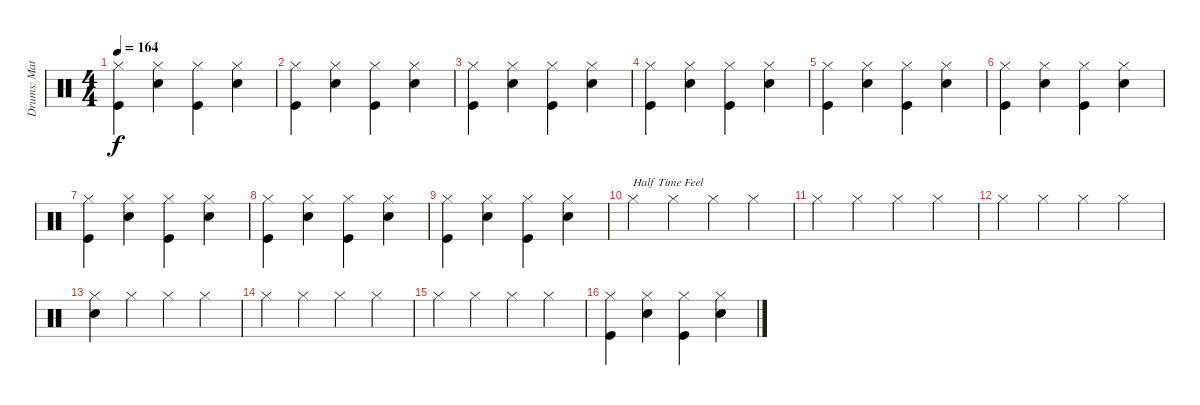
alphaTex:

\track ("Drums: Matt" "Drums: Mat") {instrument percussion}
\staff {score}
\articulation defaults
\ts (4 4)
\tempo 164
\clef neutral
\ks c
("Hi-Hat (closed)" "Kick (hit)").4{dy f} ("Hi-Hat (closed)" "Snare (hit) 2").4 ("Hi-Hat (closed)" "Kick (hit)").4 ("Hi-Hat (closed)" "Snare (hit) 2").4 |
("Hi-Hat (closed)" "Kick (hit)").4 ("Hi-Hat (closed)" "Snare (hit) 2").4 ("Hi-Hat (closed)" "Kick (hit)").4 ("Hi-Hat (closed)" "Snare (hit) 2").4 |
("Hi-Hat (closed)" "Kick (hit)").4 ("Hi-Hat (closed)" "Snare (hit) 2").4 ("Hi-Hat (closed)" "Kick (hit)").4 ("Hi-Hat (closed)" "Snare (hit) 2").4 |
("Hi-Hat (closed)" "Kick (hit)").4 ("Hi-Hat (closed)" "Snare (hit) 2").4 ("Hi-Hat (closed)" "Kick (hit)").4 ("Hi-Hat (closed)" "Snare (hit) 2").4 |
("Hi-Hat (closed)" "Kick (hit)").4 ("Hi-Hat (closed)" "Snare (hit) 2").4 ("Hi-Hat (closed)" "Kick (hit)").4 ("Hi-Hat (closed)" "Snare (hit) 2").4 |
("Hi-Hat (closed)" "Kick (hit)").4 ("Hi-Hat (closed)" "Snare (hit) 2").4 ("Hi-Hat (closed)" "Kick (hit)").4 ("Hi-Hat (closed)" "Snare (hit) 2").4 |
("Hi-Hat (closed)" "Kick (hit)").4 ("Hi-Hat (closed)" "Snare (hit) 2").4 ("Hi-Hat (closed)" "Kick (hit)").4 ("Hi-Hat (closed)" "Snare (hit) 2").4 |
("Hi-Hat (closed)" "Kick (hit)").4 ("Hi-Hat (closed)" "Snare (hit) 2").4 ("Hi-Hat (closed)" "Kick (hit)").4 ("Hi-Hat (closed)" "Snare (hit) 2").4 |
("Hi-Hat (closed)" "Kick (hit)").4 ("Hi-Hat (closed)" "Snare (hit) 2").4 ("Hi-Hat (closed)" "Kick (hit)").4 ("Hi-Hat (closed)" "Snare (hit) 2").4 |
"Hi-Hat (closed)".4{txt "Half Time Feel"} "Hi-Hat (closed)".4 "Hi-Hat (closed)".4 "Hi-Hat (closed)".4 |
"Hi-Hat (closed)".4 "Hi-Hat (closed)".4 "Hi-Hat (closed)".4 "Hi-Hat (closed)".4 |
"Hi-Hat (closed)".4 "Hi-Hat (closed)".4 "Hi-Hat (closed)".4 "Hi-Hat (closed)".4 |
("Electric Snare (hit)" "Hi-Hat (closed)").4 "Hi-Hat (closed)".4 "Hi-Hat (closed)".4 "Hi-Hat (closed)".4 |
"Hi-Hat (closed)".4 "Hi-Hat (closed)".4 "Hi-Hat (closed)".4 "Hi-Hat (closed)".4 |
"Hi-Hat (closed)".4 "Hi-Hat (closed)".4 "Hi-Hat (closed)".4 "Hi-Hat (closed)".4 |
("Hi-Hat (closed)" "Kick (hit)").4 ("Hi-Hat (closed)" "Snare (hit) 2").4 ("Hi-Hat (closed)" "Kick (hit)").4 ("Hi-Hat (closed)" "Snare (hit) 2").4
